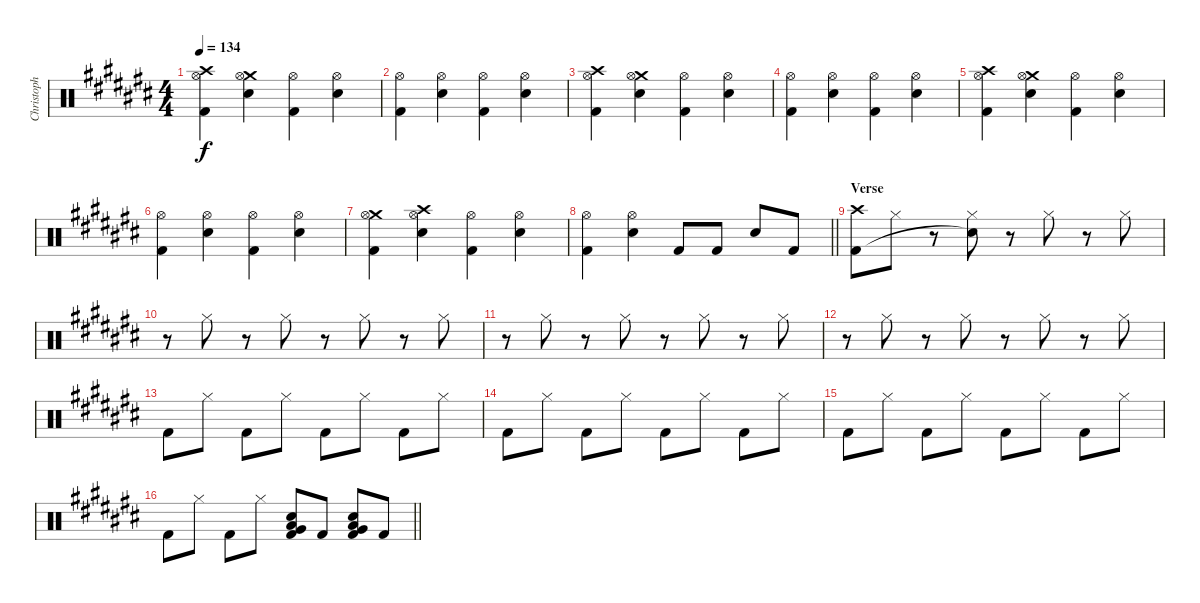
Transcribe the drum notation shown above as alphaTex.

\track ("Christoph Doom Schneider - Drums" "Christoph ") {instrument percussion}
\staff {score}
\articulation defaults
\ts (4 4)
\tempo 134
\clef neutral
\ks c#
("Crash high (hit)" "Hi-Hat (open)" "Kick (hit) 2").4{dy f} ("Crash medium (hit)" "Hi-Hat (open)" "Electric Snare (hit)").4 ("Hi-Hat (open)" "Kick (hit) 2").4 ("Hi-Hat (open)" "Electric Snare (hit)").4 |
("Hi-Hat (open)" "Kick (hit) 2").4 ("Hi-Hat (open)" "Electric Snare (hit)").4 ("Hi-Hat (open)" "Kick (hit) 2").4 ("Hi-Hat (open)" "Electric Snare (hit)").4 |
("Crash high (hit)" "Hi-Hat (open)" "Kick (hit) 2").4 ("Crash medium (hit)" "Hi-Hat (open)" "Electric Snare (hit)").4 ("Hi-Hat (open)" "Kick (hit) 2").4 ("Hi-Hat (open)" "Electric Snare (hit)").4 |
("Hi-Hat (open)" "Kick (hit) 2").4 ("Hi-Hat (open)" "Electric Snare (hit)").4 ("Hi-Hat (open)" "Kick (hit) 2").4 ("Hi-Hat (open)" "Electric Snare (hit)").4 |
("Crash high (hit)" "Hi-Hat (open)" "Kick (hit) 2").4 ("Crash medium (hit)" "Hi-Hat (open)" "Electric Snare (hit)").4 ("Hi-Hat (open)" "Kick (hit) 2").4 ("Hi-Hat (open)" "Electric Snare (hit)").4 |
("Hi-Hat (open)" "Kick (hit) 2").4 ("Hi-Hat (open)" "Electric Snare (hit)").4 ("Hi-Hat (open)" "Kick (hit) 2").4 ("Hi-Hat (open)" "Electric Snare (hit)").4 |
("Crash medium (hit)" "Hi-Hat (open)" "Kick (hit) 2").4 ("Crash high (hit)" "Hi-Hat (open)" "Electric Snare (hit)").4 ("Hi-Hat (open)" "Kick (hit) 2").4 ("Hi-Hat (open)" "Electric Snare (hit)").4 |
\barLineRight lightlight
("Hi-Hat (open)" "Kick (hit) 2").4 ("Hi-Hat (open)" "Electric Snare (hit)").4 "Kick (hit) 2".8 "Kick (hit) 2".8 "Electric Snare (hit)".8 "Kick (hit) 2".8 |
\section ("" "Verse")
("Crash high (hit)" "Kick (hit) 2").8 "Hi-Hat (closed)".8 r.8 ("Hi-Hat (closed)" "Snare (hit)"{t}).8 r.8 "Hi-Hat (closed)".8 r.8 "Hi-Hat (closed)".8 |
r.8 "Hi-Hat (closed)".8 r.8 "Hi-Hat (closed)".8 r.8 "Hi-Hat (closed)".8 r.8 "Hi-Hat (closed)".8 |
r.8 "Hi-Hat (closed)".8 r.8 "Hi-Hat (closed)".8 r.8 "Hi-Hat (closed)".8 r.8 "Hi-Hat (closed)".8 |
r.8 "Hi-Hat (closed)".8 r.8 "Hi-Hat (closed)".8 r.8 "Hi-Hat (closed)".8 r.8 "Hi-Hat (closed)".8 |
"Kick (hit) 2".8 "Hi-Hat (closed)".8 "Kick (hit) 2".8 "Hi-Hat (closed)".8 "Kick (hit) 2".8 "Hi-Hat (closed)".8 "Kick (hit) 2".8 "Hi-Hat (closed)".8 |
"Kick (hit) 2".8 "Hi-Hat (closed)".8 "Kick (hit) 2".8 "Hi-Hat (closed)".8 "Kick (hit) 2".8 "Hi-Hat (closed)".8 "Kick (hit) 2".8 "Hi-Hat (closed)".8 |
"Kick (hit) 2".8 "Hi-Hat (closed)".8 "Kick (hit) 2".8 "Hi-Hat (closed)".8 "Kick (hit) 2".8 "Hi-Hat (closed)".8 "Kick (hit) 2".8 "Hi-Hat (closed)".8 |
\barLineRight lightlight "Kick (hit) 2".8 "Hi-Hat (closed)".8 "Kick (hit) 2".8 "Hi-Hat (closed)".8
("Low Floor Tom (hit)" "Electric Snare (hit)" "Very Low Tom (hit)" "Kick (hit) 2").8 "Kick (hit) 2".8 ("Low Floor Tom (hit)" "Electric Snare (hit)" "Very Low Tom (hit)" "Kick (hit) 2").8 "Kick (hit) 2".8
